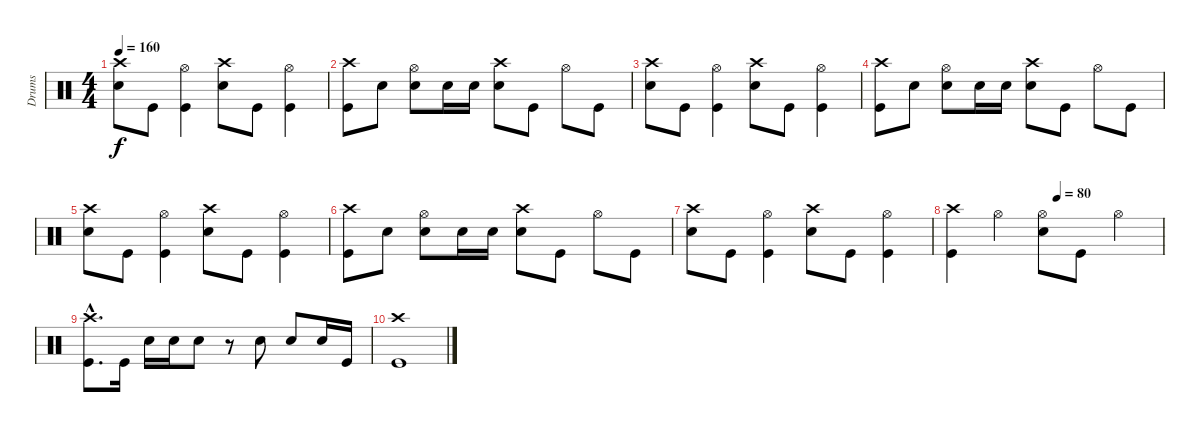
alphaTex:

\track ("Drums" "Drums") {instrument percussion}
\staff {score}
\articulation defaults
\ts (4 4)
\tempo 160
\clef neutral
\ks c
("Crash high (hit)" "Snare (hit) 2").8{dy f} "Kick (hit)".8 ("Hi-Hat (open)" "Kick (hit)").4 ("Crash high (hit)" "Snare (hit) 2").8 "Kick (hit)".8 ("Hi-Hat (open)" "Kick (hit)").4 |
("Crash high (hit)" "Kick (hit)").8 "Snare (hit) 2".8 ("Hi-Hat (open)" "Snare (hit) 2").8 "Snare (hit) 2".16 "Snare (hit) 2".16 ("Crash high (hit)" "Snare (hit) 2").8 "Kick (hit)".8 "Hi-Hat (open)".8 "Kick (hit)".8 |
("Crash high (hit)" "Snare (hit) 2").8 "Kick (hit)".8 ("Hi-Hat (open)" "Kick (hit)").4 ("Crash high (hit)" "Snare (hit) 2").8 "Kick (hit)".8 ("Hi-Hat (open)" "Kick (hit)").4 |
("Crash high (hit)" "Kick (hit)").8 "Snare (hit) 2".8 ("Hi-Hat (open)" "Snare (hit) 2").8 "Snare (hit) 2".16 "Snare (hit) 2".16 ("Crash high (hit)" "Snare (hit) 2").8 "Kick (hit)".8 "Hi-Hat (open)".8 "Kick (hit)".8 |
("Crash high (hit)" "Snare (hit) 2").8 "Kick (hit)".8 ("Hi-Hat (open)" "Kick (hit)").4 ("Crash high (hit)" "Snare (hit) 2").8 "Kick (hit)".8 ("Hi-Hat (open)" "Kick (hit)").4 |
("Crash high (hit)" "Kick (hit)").8 "Snare (hit) 2".8 ("Hi-Hat (open)" "Snare (hit) 2").8 "Snare (hit) 2".16 "Snare (hit) 2".16 ("Crash high (hit)" "Snare (hit) 2").8 "Kick (hit)".8 "Hi-Hat (open)".8 "Kick (hit)".8 |
("Crash high (hit)" "Snare (hit) 2").8 "Kick (hit)".8 ("Hi-Hat (open)" "Kick (hit)").4 ("Crash high (hit)" "Snare (hit) 2").8 "Kick (hit)".8 ("Hi-Hat (open)" "Kick (hit)").4 |
\tempo (80 0.5)
("Crash high (hit)" "Kick (hit)").4 "Hi-Hat (open)".4 ("Hi-Hat (open)" "Snare (hit) 2").8 "Kick (hit)".8 "Hi-Hat (open)".4 |
("Crash high (hit)"{hac} "Kick (hit)"{hac}).8{d} "Kick (hit)".16 "Snare (hit) 2".16 "Snare (hit) 2".16 "Snare (hit) 2".8 r.8 "Snare (hit) 2".8 "Snare (hit) 2".8 "Snare (hit) 2".16 "Kick (hit)".16 |
("Crash high (hit)" "Kick (hit)").1
